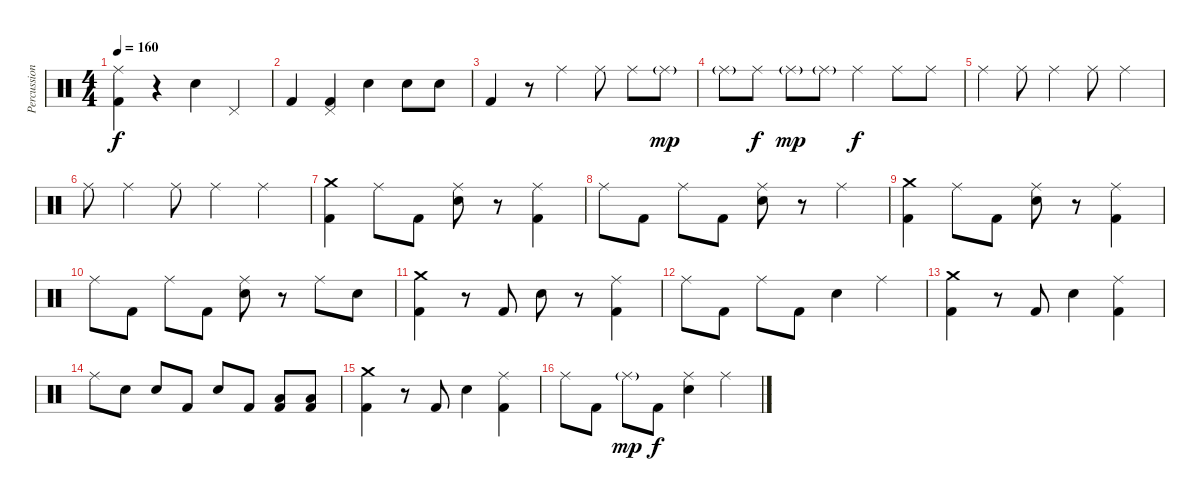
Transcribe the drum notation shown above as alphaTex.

\track ("Percussion" "Percussion") {instrument percussion}
\staff {score}
\articulation defaults
\ts (4 4)
\tempo 160
\clef neutral
\ks c
("Ride (middle)" "Kick (hit) 2").4{dy f} r.4 "Snare (hit) 2".4 "Pedal Hi-Hat (hit)".4 |
"Kick (hit) 2".4 ("Pedal Hi-Hat (hit)" "Kick (hit) 2").4 "Snare (hit) 2".4 "Snare (hit) 2".8 "Snare (hit) 2".8 |
"Kick (hit) 2".4 r.8 "Ride (middle)".4 "Ride (middle)".8 "Ride (middle)".8 "Ride (middle)"{g}.8{dy mp} |
"Ride (middle)"{g}.8 "Ride (middle)".8{dy f} "Ride (middle)"{g}.8{dy mp} "Ride (middle)"{g}.8 "Ride (middle)".4{dy f} "Ride (middle)".8 "Ride (middle)".8 |
"Ride (middle)".4 "Ride (middle)".8 "Ride (middle)".4 "Ride (middle)".8 "Ride (middle)".4 |
"Ride (middle)".8 "Ride (middle)".4 "Ride (middle)".8 "Ride (middle)".4 "Ride (middle)".4 |
("Crash medium (hit)" "Kick (hit) 2").4 "Ride (middle)".8 "Kick (hit) 2".8 ("Ride (middle)" "Snare (hit) 2").8 r.8 ("Ride (middle)" "Kick (hit) 2").4 |
"Ride (middle)".8 "Kick (hit) 2".8 "Ride (middle)".8 "Kick (hit) 2".8 ("Ride (middle)" "Snare (hit) 2").8 r.8 "Ride (middle)".4 |
("Crash medium (hit)" "Kick (hit) 2").4 "Ride (middle)".8 "Kick (hit) 2".8 ("Ride (middle)" "Snare (hit) 2").8 r.8 ("Ride (middle)" "Kick (hit) 2").4 |
"Ride (middle)".8 "Kick (hit) 2".8 "Ride (middle)".8 "Kick (hit) 2".8 ("Ride (middle)" "Snare (hit) 2").8 r.8 "Ride (middle)".8 "Snare (hit) 2".8 |
("Crash medium (hit)" "Kick (hit) 2").4 r.8 "Kick (hit) 2".8 "Snare (hit) 2".8 r.8 ("Ride (middle)" "Kick (hit) 2").4 |
"Ride (middle)".8 "Kick (hit) 2".8 "Ride (middle)".8 "Kick (hit) 2".8 "Snare (hit) 2".4 "Ride (middle)".4 |
("Crash medium (hit)" "Kick (hit) 2").4 r.8 "Kick (hit) 2".8 "Snare (hit) 2".4 ("Ride (middle)" "Kick (hit) 2").4 |
"Ride (middle)".8 "Snare (hit) 2".8 "Snare (hit) 2".8 "Kick (hit) 2".8 "Snare (hit) 2".8 "Kick (hit) 2".8 ("Kick (hit) 2" "Low Floor Tom (hit)").8 ("Kick (hit) 2" "Low Floor Tom (hit)").8 |
("Crash medium (hit)" "Kick (hit) 2").4 r.8 "Kick (hit) 2".8 "Snare (hit) 2".4 ("Ride (middle)" "Kick (hit) 2").4 |
"Ride (middle)".8 "Kick (hit) 2".8 "Ride (middle)"{g}.8{dy mp} "Kick (hit) 2".8{dy f} ("Ride (middle)" "Snare (hit) 2").4 "Ride (middle)".4
